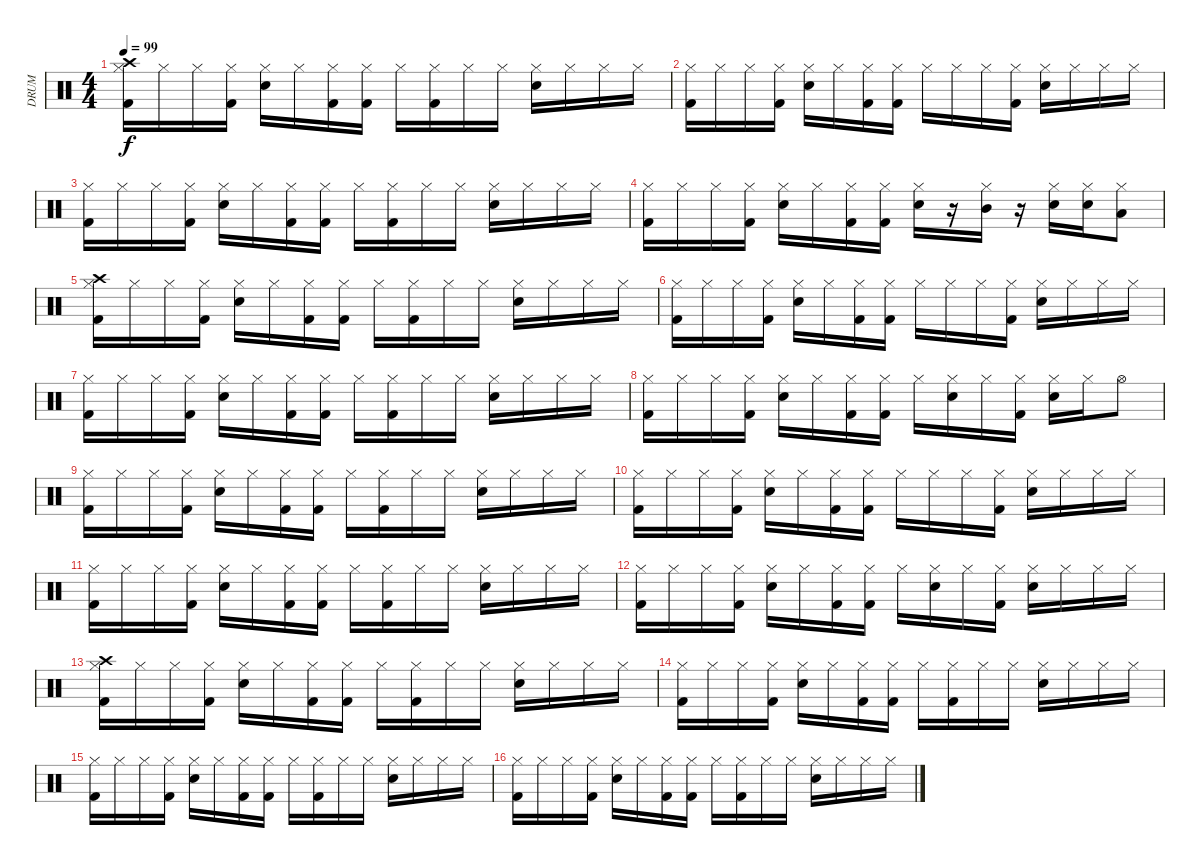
\track ("DRUM" "DRUM") {instrument percussion}
\staff {score}
\articulation defaults
\ts (4 4)
\tempo 99
\clef neutral
\ks c
("Crash high (hit)" "Hi-Hat (closed)" "Kick (hit) 2").16{dy f} "Hi-Hat (closed)".16 "Hi-Hat (closed)".16 ("Hi-Hat (closed)" "Kick (hit) 2").16 ("Hi-Hat (closed)" "Snare (hit) 2").16 "Hi-Hat (closed)".16 ("Hi-Hat (closed)" "Kick (hit) 2").16 ("Hi-Hat (closed)" "Kick (hit) 2").16 "Hi-Hat (closed)".16 ("Hi-Hat (closed)" "Kick (hit) 2").16 "Hi-Hat (closed)".16 "Hi-Hat (closed)".16 ("Hi-Hat (closed)" "Snare (hit) 2").16 "Hi-Hat (closed)".16 "Hi-Hat (closed)".16 "Hi-Hat (closed)".16 |
("Hi-Hat (closed)" "Kick (hit) 2").16 "Hi-Hat (closed)".16 "Hi-Hat (closed)".16 ("Hi-Hat (closed)" "Kick (hit) 2").16 ("Hi-Hat (closed)" "Snare (hit) 2").16 "Hi-Hat (closed)".16 ("Hi-Hat (closed)" "Kick (hit) 2").16 ("Hi-Hat (closed)" "Kick (hit) 2").16 "Hi-Hat (closed)".16 "Hi-Hat (closed)".16 "Hi-Hat (closed)".16 ("Hi-Hat (closed)" "Kick (hit) 2").16 ("Hi-Hat (closed)" "Snare (hit) 2").16 "Hi-Hat (closed)".16 "Hi-Hat (closed)".16 "Hi-Hat (closed)".16 |
("Hi-Hat (closed)" "Kick (hit) 2").16 "Hi-Hat (closed)".16 "Hi-Hat (closed)".16 ("Hi-Hat (closed)" "Kick (hit) 2").16 ("Hi-Hat (closed)" "Snare (hit) 2").16 "Hi-Hat (closed)".16 ("Hi-Hat (closed)" "Kick (hit) 2").16 ("Hi-Hat (closed)" "Kick (hit) 2").16 "Hi-Hat (closed)".16 ("Hi-Hat (closed)" "Kick (hit) 2").16 "Hi-Hat (closed)".16 "Hi-Hat (closed)".16 ("Hi-Hat (closed)" "Snare (hit) 2").16 "Hi-Hat (closed)".16 "Hi-Hat (closed)".16 "Hi-Hat (closed)".16 |
("Hi-Hat (closed)" "Kick (hit) 2").16 "Hi-Hat (closed)".16 "Hi-Hat (closed)".16 ("Hi-Hat (closed)" "Kick (hit) 2").16 ("Hi-Hat (closed)" "Snare (hit) 2").16 "Hi-Hat (closed)".16 ("Hi-Hat (closed)" "Kick (hit) 2").16 ("Hi-Hat (closed)" "Kick (hit) 2").16 ("Hi-Hat (closed)" "Snare (hit) 2").16 r.16 ("Hi-Hat (closed)" "Mid Tom (hit)").16 r.16 ("Hi-Hat (closed)" "Snare (hit) 2").16 ("Hi-Hat (closed)" "Snare (hit) 2").16 ("Hi-Hat (closed)" "Low Tom (hit)").8 |
("Crash high (hit)" "Hi-Hat (closed)" "Kick (hit) 2").16 "Hi-Hat (closed)".16 "Hi-Hat (closed)".16 ("Hi-Hat (closed)" "Kick (hit) 2").16 ("Hi-Hat (closed)" "Snare (hit) 2").16 "Hi-Hat (closed)".16 ("Hi-Hat (closed)" "Kick (hit) 2").16 ("Hi-Hat (closed)" "Kick (hit) 2").16 "Hi-Hat (closed)".16 ("Hi-Hat (closed)" "Kick (hit) 2").16 "Hi-Hat (closed)".16 "Hi-Hat (closed)".16 ("Hi-Hat (closed)" "Snare (hit) 2").16 "Hi-Hat (closed)".16 "Hi-Hat (closed)".16 "Hi-Hat (closed)".16 |
("Hi-Hat (closed)" "Kick (hit) 2").16 "Hi-Hat (closed)".16 "Hi-Hat (closed)".16 ("Hi-Hat (closed)" "Kick (hit) 2").16 ("Hi-Hat (closed)" "Snare (hit) 2").16 "Hi-Hat (closed)".16 ("Hi-Hat (closed)" "Kick (hit) 2").16 ("Hi-Hat (closed)" "Kick (hit) 2").16 "Hi-Hat (closed)".16 "Hi-Hat (closed)".16 "Hi-Hat (closed)".16 ("Hi-Hat (closed)" "Kick (hit) 2").16 ("Hi-Hat (closed)" "Snare (hit) 2").16 "Hi-Hat (closed)".16 "Hi-Hat (closed)".16 "Hi-Hat (closed)".16 |
("Hi-Hat (closed)" "Kick (hit) 2").16 "Hi-Hat (closed)".16 "Hi-Hat (closed)".16 ("Hi-Hat (closed)" "Kick (hit) 2").16 ("Hi-Hat (closed)" "Snare (hit) 2").16 "Hi-Hat (closed)".16 ("Hi-Hat (closed)" "Kick (hit) 2").16 ("Hi-Hat (closed)" "Kick (hit) 2").16 "Hi-Hat (closed)".16 ("Hi-Hat (closed)" "Kick (hit) 2").16 "Hi-Hat (closed)".16 "Hi-Hat (closed)".16 ("Hi-Hat (closed)" "Snare (hit) 2").16 "Hi-Hat (closed)".16 "Hi-Hat (closed)".16 "Hi-Hat (closed)".16 |
("Hi-Hat (closed)" "Kick (hit) 2").16 "Hi-Hat (closed)".16 "Hi-Hat (closed)".16 ("Hi-Hat (closed)" "Kick (hit) 2").16 ("Hi-Hat (closed)" "Snare (hit) 2").16 "Hi-Hat (closed)".16 ("Hi-Hat (closed)" "Kick (hit) 2").16 ("Hi-Hat (closed)" "Kick (hit) 2").16 "Hi-Hat (closed)".16 ("Hi-Hat (closed)" "Snare (hit) 2").16 "Hi-Hat (closed)".16 ("Hi-Hat (closed)" "Kick (hit) 2").16 ("Hi-Hat (closed)" "Snare (hit) 2").16 "Hi-Hat (closed)".16 "Hi-Hat (open)".8 |
("Hi-Hat (closed)" "Kick (hit) 2").16 "Hi-Hat (closed)".16 "Hi-Hat (closed)".16 ("Hi-Hat (closed)" "Kick (hit) 2").16 ("Hi-Hat (closed)" "Snare (hit) 2").16 "Hi-Hat (closed)".16 ("Hi-Hat (closed)" "Kick (hit) 2").16 ("Hi-Hat (closed)" "Kick (hit) 2").16 "Hi-Hat (closed)".16 ("Hi-Hat (closed)" "Kick (hit) 2").16 "Hi-Hat (closed)".16 "Hi-Hat (closed)".16 ("Hi-Hat (closed)" "Snare (hit) 2").16 "Hi-Hat (closed)".16 "Hi-Hat (closed)".16 "Hi-Hat (closed)".16 |
("Hi-Hat (closed)" "Kick (hit) 2").16 "Hi-Hat (closed)".16 "Hi-Hat (closed)".16 ("Hi-Hat (closed)" "Kick (hit) 2").16 ("Hi-Hat (closed)" "Snare (hit) 2").16 "Hi-Hat (closed)".16 ("Hi-Hat (closed)" "Kick (hit) 2").16 ("Hi-Hat (closed)" "Kick (hit) 2").16 "Hi-Hat (closed)".16 "Hi-Hat (closed)".16 "Hi-Hat (closed)".16 ("Hi-Hat (closed)" "Kick (hit) 2").16 ("Hi-Hat (closed)" "Snare (hit) 2").16 "Hi-Hat (closed)".16 "Hi-Hat (closed)".16 "Hi-Hat (closed)".16 |
("Hi-Hat (closed)" "Kick (hit) 2").16 "Hi-Hat (closed)".16 "Hi-Hat (closed)".16 ("Hi-Hat (closed)" "Kick (hit) 2").16 ("Hi-Hat (closed)" "Snare (hit) 2").16 "Hi-Hat (closed)".16 ("Hi-Hat (closed)" "Kick (hit) 2").16 ("Hi-Hat (closed)" "Kick (hit) 2").16 "Hi-Hat (closed)".16 ("Hi-Hat (closed)" "Kick (hit) 2").16 "Hi-Hat (closed)".16 "Hi-Hat (closed)".16 ("Hi-Hat (closed)" "Snare (hit) 2").16 "Hi-Hat (closed)".16 "Hi-Hat (closed)".16 "Hi-Hat (closed)".16 |
("Hi-Hat (closed)" "Kick (hit) 2").16 "Hi-Hat (closed)".16 "Hi-Hat (closed)".16 ("Hi-Hat (closed)" "Kick (hit) 2").16 ("Hi-Hat (closed)" "Snare (hit) 2").16 "Hi-Hat (closed)".16 ("Hi-Hat (closed)" "Kick (hit) 2").16 ("Hi-Hat (closed)" "Kick (hit) 2").16 "Hi-Hat (closed)".16 ("Hi-Hat (closed)" "Snare (hit) 2").16 "Hi-Hat (closed)".16 ("Hi-Hat (closed)" "Kick (hit) 2").16 ("Hi-Hat (closed)" "Snare (hit) 2").16 "Hi-Hat (closed)".16 "Hi-Hat (closed)".16 "Hi-Hat (closed)".16 |
("Crash high (hit)" "Hi-Hat (closed)" "Kick (hit) 2").16 "Hi-Hat (closed)".16 "Hi-Hat (closed)".16 ("Hi-Hat (closed)" "Kick (hit) 2").16 ("Hi-Hat (closed)" "Snare (hit) 2").16 "Hi-Hat (closed)".16 ("Hi-Hat (closed)" "Kick (hit) 2").16 ("Hi-Hat (closed)" "Kick (hit) 2").16 "Hi-Hat (closed)".16 ("Hi-Hat (closed)" "Kick (hit) 2").16 "Hi-Hat (closed)".16 "Hi-Hat (closed)".16 ("Hi-Hat (closed)" "Snare (hit) 2").16 "Hi-Hat (closed)".16 "Hi-Hat (closed)".16 "Hi-Hat (closed)".16 |
("Hi-Hat (closed)" "Kick (hit) 2").16 "Hi-Hat (closed)".16 "Hi-Hat (closed)".16 ("Hi-Hat (closed)" "Kick (hit) 2").16 ("Hi-Hat (closed)" "Snare (hit) 2").16 "Hi-Hat (closed)".16 ("Hi-Hat (closed)" "Kick (hit) 2").16 ("Hi-Hat (closed)" "Kick (hit) 2").16 "Hi-Hat (closed)".16 ("Hi-Hat (closed)" "Kick (hit) 2").16 "Hi-Hat (closed)".16 "Hi-Hat (closed)".16 ("Hi-Hat (closed)" "Snare (hit) 2").16 "Hi-Hat (closed)".16 "Hi-Hat (closed)".16 "Hi-Hat (closed)".16 |
("Hi-Hat (closed)" "Kick (hit) 2").16 "Hi-Hat (closed)".16 "Hi-Hat (closed)".16 ("Hi-Hat (closed)" "Kick (hit) 2").16 ("Hi-Hat (closed)" "Snare (hit) 2").16 "Hi-Hat (closed)".16 ("Hi-Hat (closed)" "Kick (hit) 2").16 ("Hi-Hat (closed)" "Kick (hit) 2").16 "Hi-Hat (closed)".16 ("Hi-Hat (closed)" "Kick (hit) 2").16 "Hi-Hat (closed)".16 "Hi-Hat (closed)".16 ("Hi-Hat (closed)" "Snare (hit) 2").16 "Hi-Hat (closed)".16 "Hi-Hat (closed)".16 "Hi-Hat (closed)".16 |
("Hi-Hat (closed)" "Kick (hit) 2").16 "Hi-Hat (closed)".16 "Hi-Hat (closed)".16 ("Hi-Hat (closed)" "Kick (hit) 2").16 ("Hi-Hat (closed)" "Snare (hit) 2").16 "Hi-Hat (closed)".16 ("Hi-Hat (closed)" "Kick (hit) 2").16 ("Hi-Hat (closed)" "Kick (hit) 2").16 "Hi-Hat (closed)".16 ("Hi-Hat (closed)" "Kick (hit) 2").16 "Hi-Hat (closed)".16 "Hi-Hat (closed)".16 ("Hi-Hat (closed)" "Snare (hit) 2").16 "Hi-Hat (closed)".16 "Hi-Hat (closed)".16 "Hi-Hat (closed)".16
